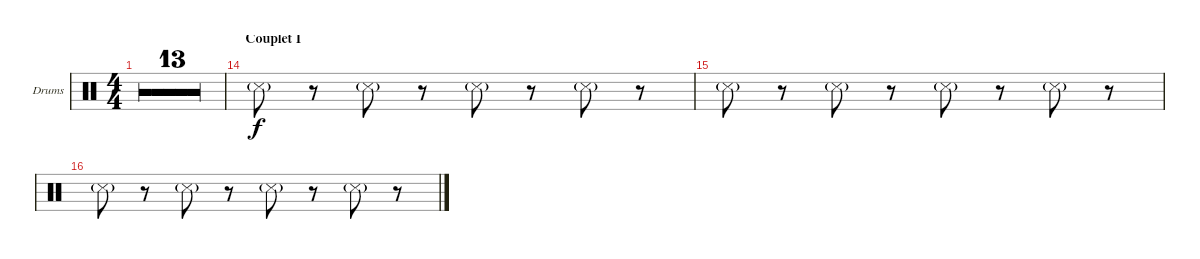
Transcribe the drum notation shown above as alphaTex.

\bracketExtendMode groupsimilarinstruments
\firstSystemTrackNameOrientation horizontal
\otherSystemsTrackNameOrientation horizontal
\track ("Clock" "Drums") {multiBarRest instrument percussion}
\staff {score}
\articulation defaults
\ts (4 4)
\tempo 116
\clef neutral
\ks c
|
|
|
|
|
|
|
|
|
|
|
|
|
\section ("" "Couplet I")
"Snare (side stick) 3"{g}.8 r.8 "Snare (side stick) 3"{g}.8 r.8 "Snare (side stick) 3"{g}.8 r.8 "Snare (side stick) 3"{g}.8 r.8 |
"Snare (side stick) 3"{g}.8 r.8 "Snare (side stick) 3"{g}.8 r.8 "Snare (side stick) 3"{g}.8 r.8 "Snare (side stick) 3"{g}.8 r.8 |
"Snare (side stick) 3"{g}.8 r.8 "Snare (side stick) 3"{g}.8 r.8 "Snare (side stick) 3"{g}.8 r.8 "Snare (side stick) 3"{g}.8 r.8
